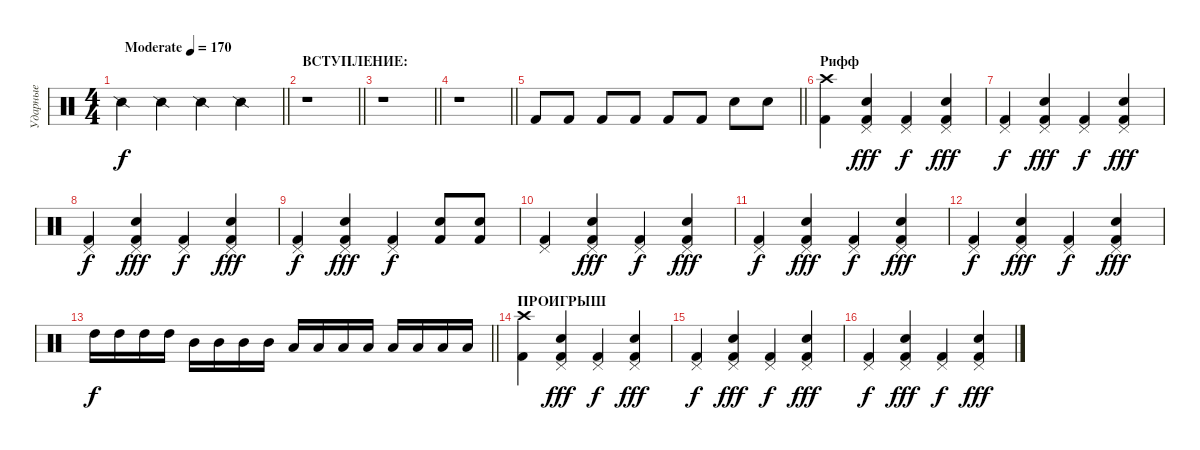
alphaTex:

\track ("Ударные" "Ударные") {instrument percussion}
\staff {score}
\articulation defaults
\ts (4 4)
\tempo (170 "Moderate")
\clef neutral
\barLineRight lightlight
\ks c "Snare (side stick) 2".4{dy f} "Snare (side stick) 2".4 "Snare (side stick) 2".4 "Snare (side stick) 2".4
|
\section ("" "ВСТУПЛЕНИЕ:")
\barLineRight lightlight
r.1 |
\barLineRight lightlight
r.1 |
\barLineRight lightlight
r.1 |
\barLineRight lightlight "Kick (hit) 2".8 "Kick (hit) 2".8 "Kick (hit) 2".8 "Kick (hit) 2".8 "Kick (hit) 2".8 "Kick (hit) 2".8 "Snare (hit) 2".8 "Electric Snare (hit)".8
|
\section ("" "Рифф")
("Crash high (hit)" "Kick (hit) 2").4 ("Pedal Hi-Hat (hit)" "Snare (hit) 2" "Kick (hit) 2").4{dy fff} ("Pedal Hi-Hat (hit)" "Kick (hit) 2").4{dy f} ("Pedal Hi-Hat (hit)" "Snare (hit) 2" "Kick (hit) 2").4{dy fff} |
("Pedal Hi-Hat (hit)" "Kick (hit) 2").4{dy f} ("Pedal Hi-Hat (hit)" "Snare (hit) 2" "Kick (hit) 2").4{dy fff} ("Pedal Hi-Hat (hit)" "Kick (hit) 2").4{dy f} ("Pedal Hi-Hat (hit)" "Snare (hit) 2" "Kick (hit) 2").4{dy fff} |
("Pedal Hi-Hat (hit)" "Kick (hit) 2").4{dy f} ("Pedal Hi-Hat (hit)" "Snare (hit) 2" "Kick (hit) 2").4{dy fff} ("Pedal Hi-Hat (hit)" "Kick (hit) 2").4{dy f} ("Pedal Hi-Hat (hit)" "Snare (hit) 2" "Kick (hit) 2").4{dy fff} |
("Pedal Hi-Hat (hit)" "Kick (hit) 2").4{dy f} ("Pedal Hi-Hat (hit)" "Snare (hit) 2" "Kick (hit) 2").4{dy fff} ("Pedal Hi-Hat (hit)" "Kick (hit) 2").4{dy f} ("Snare (hit) 2" "Kick (hit) 2").8 ("Snare (hit) 2" "Kick (hit) 2").8 |
("Pedal Hi-Hat (hit)" "Kick (hit) 2").4 ("Pedal Hi-Hat (hit)" "Snare (hit) 2" "Kick (hit) 2").4{dy fff} ("Pedal Hi-Hat (hit)" "Kick (hit) 2").4{dy f} ("Pedal Hi-Hat (hit)" "Snare (hit) 2" "Kick (hit) 2").4{dy fff} |
("Pedal Hi-Hat (hit)" "Kick (hit) 2").4{dy f} ("Pedal Hi-Hat (hit)" "Snare (hit) 2" "Kick (hit) 2").4{dy fff} ("Pedal Hi-Hat (hit)" "Kick (hit) 2").4{dy f} ("Pedal Hi-Hat (hit)" "Snare (hit) 2" "Kick (hit) 2").4{dy fff} |
("Pedal Hi-Hat (hit)" "Kick (hit) 2").4{dy f} ("Pedal Hi-Hat (hit)" "Snare (hit) 2" "Kick (hit) 2").4{dy fff} ("Pedal Hi-Hat (hit)" "Kick (hit) 2").4{dy f} ("Pedal Hi-Hat (hit)" "Snare (hit) 2" "Kick (hit) 2").4{dy fff} |
\barLineRight lightlight "High Tom (hit)".16{dy f} "High Tom (hit)".16 "High Tom (hit)".16 "High Tom (hit)".16 "Mid Tom (hit)".16 "Mid Tom (hit)".16 "Mid Tom (hit)".16 "Mid Tom (hit)".16 "Low Tom (hit)".16 "Low Tom (hit)".16 "Low Tom (hit)".16 "Low Tom (hit)".16 "Low Floor Tom (hit)".16 "Low Floor Tom (hit)".16 "Low Floor Tom (hit)".16 "Low Floor Tom (hit)".16
|
\section ("" "ПРОИГРЫШ")
("Crash high (hit)" "Kick (hit) 2").4 ("Pedal Hi-Hat (hit)" "Snare (hit) 2" "Kick (hit) 2").4{dy fff} ("Pedal Hi-Hat (hit)" "Kick (hit) 2").4{dy f} ("Pedal Hi-Hat (hit)" "Snare (hit) 2" "Kick (hit) 2").4{dy fff} |
("Pedal Hi-Hat (hit)" "Kick (hit) 2").4{dy f} ("Pedal Hi-Hat (hit)" "Snare (hit) 2" "Kick (hit) 2").4{dy fff} ("Pedal Hi-Hat (hit)" "Kick (hit) 2").4{dy f} ("Pedal Hi-Hat (hit)" "Snare (hit) 2" "Kick (hit) 2").4{dy fff} |
("Pedal Hi-Hat (hit)" "Kick (hit) 2").4{dy f} ("Pedal Hi-Hat (hit)" "Snare (hit) 2" "Kick (hit) 2").4{dy fff} ("Pedal Hi-Hat (hit)" "Kick (hit) 2").4{dy f} ("Pedal Hi-Hat (hit)" "Snare (hit) 2" "Kick (hit) 2").4{dy fff}
